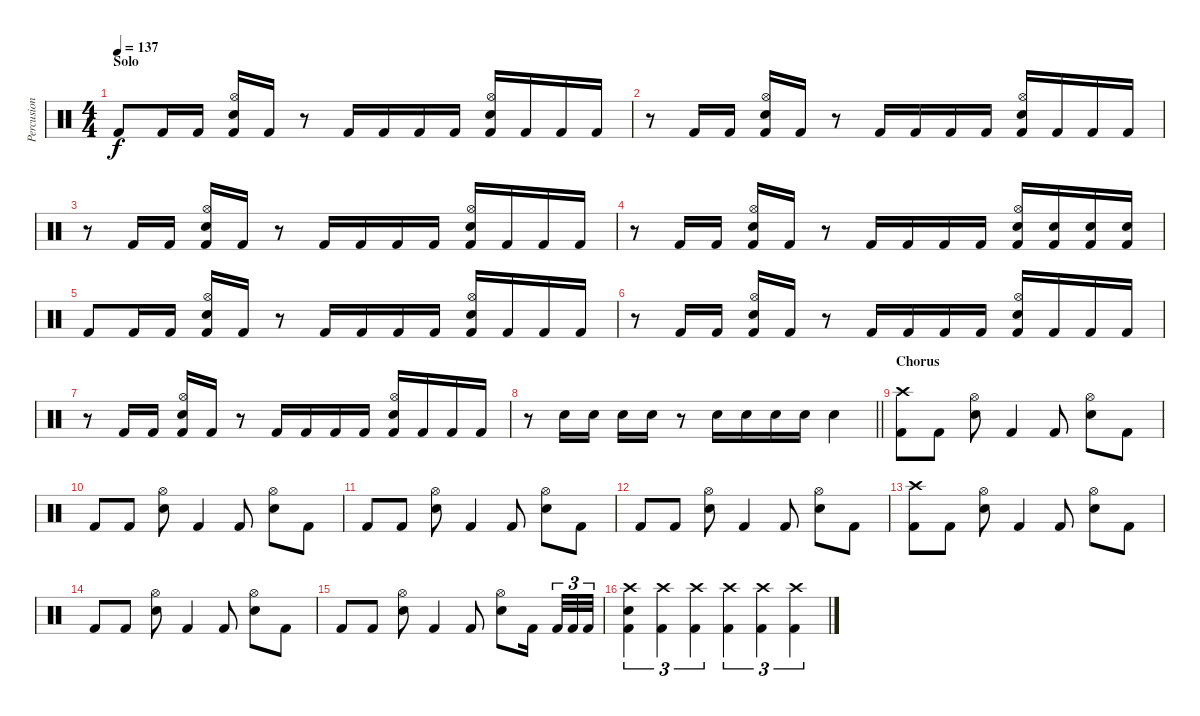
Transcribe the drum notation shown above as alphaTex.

\track ("Percusion" "Percusion") {instrument percussion}
\staff {score}
\articulation defaults
\ts (4 4)
\section ("" "Solo")
\tempo 137
\clef neutral
\ks c "Kick (hit) 2".8{dy f} "Kick (hit) 2".16 "Kick (hit) 2".16
("Hi-Hat (open)" "Snare (hit) 2" "Kick (hit) 2").16 "Kick (hit) 2".16 r.8 "Kick (hit) 2".16 "Kick (hit) 2".16 "Kick (hit) 2".16 "Kick (hit) 2".16 ("Hi-Hat (open)" "Snare (hit) 2" "Kick (hit) 2").16 "Kick (hit) 2".16 "Kick (hit) 2".16 "Kick (hit) 2".16 |
r.8 "Kick (hit) 2".16 "Kick (hit) 2".16 ("Hi-Hat (open)" "Snare (hit) 2" "Kick (hit) 2").16 "Kick (hit) 2".16 r.8 "Kick (hit) 2".16 "Kick (hit) 2".16 "Kick (hit) 2".16 "Kick (hit) 2".16 ("Hi-Hat (open)" "Snare (hit) 2" "Kick (hit) 2").16 "Kick (hit) 2".16 "Kick (hit) 2".16 "Kick (hit) 2".16 |
r.8 "Kick (hit) 2".16 "Kick (hit) 2".16 ("Hi-Hat (open)" "Snare (hit) 2" "Kick (hit) 2").16 "Kick (hit) 2".16 r.8 "Kick (hit) 2".16 "Kick (hit) 2".16 "Kick (hit) 2".16 "Kick (hit) 2".16 ("Hi-Hat (open)" "Snare (hit) 2" "Kick (hit) 2").16 "Kick (hit) 2".16 "Kick (hit) 2".16 "Kick (hit) 2".16 |
r.8 "Kick (hit) 2".16 "Kick (hit) 2".16 ("Hi-Hat (open)" "Snare (hit) 2" "Kick (hit) 2").16 "Kick (hit) 2".16 r.8 "Kick (hit) 2".16 "Kick (hit) 2".16 "Kick (hit) 2".16 "Kick (hit) 2".16 ("Hi-Hat (open)" "Snare (hit) 2" "Kick (hit) 2").16 ("Snare (hit) 2" "Kick (hit) 2").16 ("Snare (hit) 2" "Kick (hit) 2").16 ("Snare (hit) 2" "Kick (hit) 2").16 |
"Kick (hit) 2".8 "Kick (hit) 2".16 "Kick (hit) 2".16 ("Hi-Hat (open)" "Snare (hit) 2" "Kick (hit) 2").16 "Kick (hit) 2".16 r.8 "Kick (hit) 2".16 "Kick (hit) 2".16 "Kick (hit) 2".16 "Kick (hit) 2".16 ("Hi-Hat (open)" "Snare (hit) 2" "Kick (hit) 2").16 "Kick (hit) 2".16 "Kick (hit) 2".16 "Kick (hit) 2".16 |
r.8 "Kick (hit) 2".16 "Kick (hit) 2".16 ("Hi-Hat (open)" "Snare (hit) 2" "Kick (hit) 2").16 "Kick (hit) 2".16 r.8 "Kick (hit) 2".16 "Kick (hit) 2".16 "Kick (hit) 2".16 "Kick (hit) 2".16 ("Hi-Hat (open)" "Snare (hit) 2" "Kick (hit) 2").16 "Kick (hit) 2".16 "Kick (hit) 2".16 "Kick (hit) 2".16 |
r.8 "Kick (hit) 2".16 "Kick (hit) 2".16 ("Hi-Hat (open)" "Snare (hit) 2" "Kick (hit) 2").16 "Kick (hit) 2".16 r.8 "Kick (hit) 2".16 "Kick (hit) 2".16 "Kick (hit) 2".16 "Kick (hit) 2".16 ("Hi-Hat (open)" "Snare (hit) 2" "Kick (hit) 2").16 "Kick (hit) 2".16 "Kick (hit) 2".16 "Kick (hit) 2".16 |
\barLineRight lightlight
r.8 "Snare (hit) 2".16 "Snare (hit) 2".16 "Snare (hit) 2".16 "Snare (hit) 2".16 r.8 "Snare (hit) 2".16 "Snare (hit) 2".16 "Snare (hit) 2".16 "Snare (hit) 2".16 "Snare (hit) 2".4 |
\section ("" "Chorus")
("Crash high (hit)" "Kick (hit) 2").8 "Kick (hit) 2".8 ("Hi-Hat (open)" "Snare (hit) 2").8 "Kick (hit) 2".4 "Kick (hit) 2".8 ("Hi-Hat (open)" "Snare (hit) 2").8 "Kick (hit) 2".8 |
"Kick (hit) 2".8 "Kick (hit) 2".8 ("Hi-Hat (open)" "Snare (hit) 2").8 "Kick (hit) 2".4 "Kick (hit) 2".8 ("Hi-Hat (open)" "Snare (hit) 2").8 "Kick (hit) 2".8 |
"Kick (hit) 2".8 "Kick (hit) 2".8 ("Hi-Hat (open)" "Snare (hit) 2").8 "Kick (hit) 2".4 "Kick (hit) 2".8 ("Hi-Hat (open)" "Snare (hit) 2").8 "Kick (hit) 2".8 |
"Kick (hit) 2".8 "Kick (hit) 2".8 ("Hi-Hat (open)" "Snare (hit) 2").8 "Kick (hit) 2".4 "Kick (hit) 2".8 ("Hi-Hat (open)" "Snare (hit) 2").8 "Kick (hit) 2".8 |
("Crash high (hit)" "Kick (hit) 2").8 "Kick (hit) 2".8 ("Hi-Hat (open)" "Snare (hit) 2").8 "Kick (hit) 2".4 "Kick (hit) 2".8 ("Hi-Hat (open)" "Snare (hit) 2").8 "Kick (hit) 2".8 |
"Kick (hit) 2".8 "Kick (hit) 2".8 ("Hi-Hat (open)" "Snare (hit) 2").8 "Kick (hit) 2".4 "Kick (hit) 2".8 ("Hi-Hat (open)" "Snare (hit) 2").8 "Kick (hit) 2".8 |
"Kick (hit) 2".8 "Kick (hit) 2".8 ("Hi-Hat (open)" "Snare (hit) 2").8 "Kick (hit) 2".4 "Kick (hit) 2".8 ("Hi-Hat (open)" "Snare (hit) 2").8 "Kick (hit) 2".16{beam splitsecondary} "Kick (hit) 2".32{tu (3 2)} "Kick (hit) 2".32{tu (3 2)} "Kick (hit) 2".32{tu (3 2)} |
("Crash high (hit)" "Snare (hit) 2" "Kick (hit) 2").4{tu (3 2)} ("Crash high (hit)" "Kick (hit) 2").4{tu (3 2)} ("Crash high (hit)" "Kick (hit) 2").4{tu (3 2)} ("Crash high (hit)" "Kick (hit) 2").4{tu (3 2)} ("Crash high (hit)" "Kick (hit) 2").4{tu (3 2)} ("Crash high (hit)" "Kick (hit) 2").4{tu (3 2)}
